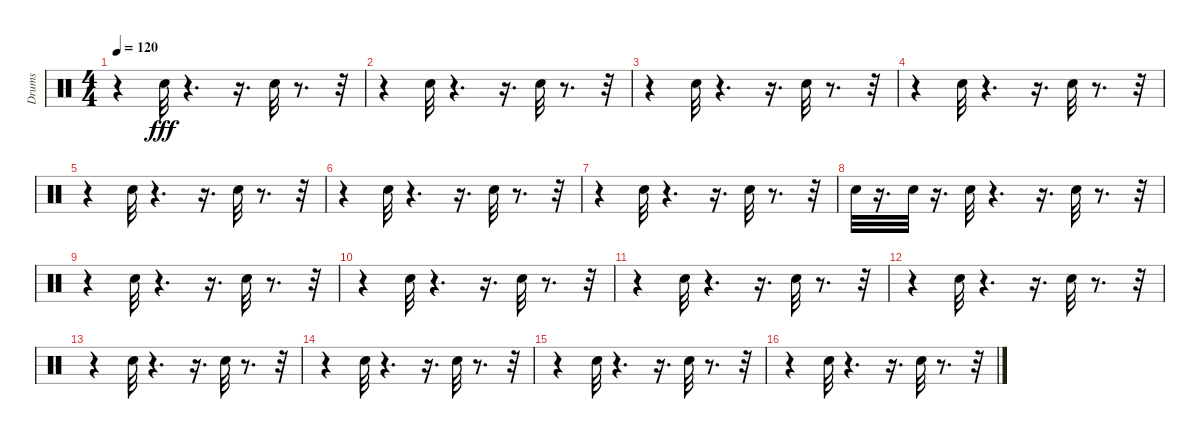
\track ("Drums" "Drums") {instrument percussion}
\staff {score}
\articulation defaults
\ts (4 4)
\tempo 120
\clef neutral
\ks c
r.4{dy fff} "Snare (hit) 2".32 r.4{d} r.16{d} "Snare (hit) 2".32 r.8{d} r.32 |
r.4 "Snare (hit) 2".32 r.4{d} r.16{d} "Snare (hit) 2".32 r.8{d} r.32 |
r.4 "Snare (hit) 2".32 r.4{d} r.16{d} "Snare (hit) 2".32 r.8{d} r.32 |
r.4 "Snare (hit) 2".32 r.4{d} r.16{d} "Snare (hit) 2".32 r.8{d} r.32 |
r.4 "Snare (hit) 2".32 r.4{d} r.16{d} "Snare (hit) 2".32 r.8{d} r.32 |
r.4 "Snare (hit) 2".32 r.4{d} r.16{d} "Snare (hit) 2".32 r.8{d} r.32 |
r.4 "Snare (hit) 2".32 r.4{d} r.16{d} "Snare (hit) 2".32 r.8{d} r.32 |
"Snare (hit) 2".32 r.16{d} "Snare (hit) 2".32 r.16{d} "Snare (hit) 2".32 r.4{d} r.16{d} "Snare (hit) 2".32 r.8{d} r.32 |
r.4 "Snare (hit) 2".32 r.4{d} r.16{d} "Snare (hit) 2".32 r.8{d} r.32 |
r.4 "Snare (hit) 2".32 r.4{d} r.16{d} "Snare (hit) 2".32 r.8{d} r.32 |
r.4 "Snare (hit) 2".32 r.4{d} r.16{d} "Snare (hit) 2".32 r.8{d} r.32 |
r.4 "Snare (hit) 2".32 r.4{d} r.16{d} "Snare (hit) 2".32 r.8{d} r.32 |
r.4 "Snare (hit) 2".32 r.4{d} r.16{d} "Snare (hit) 2".32 r.8{d} r.32 |
r.4 "Snare (hit) 2".32 r.4{d} r.16{d} "Snare (hit) 2".32 r.8{d} r.32 |
r.4 "Snare (hit) 2".32 r.4{d} r.16{d} "Snare (hit) 2".32 r.8{d} r.32 |
r.4 "Snare (hit) 2".32 r.4{d} r.16{d} "Snare (hit) 2".32 r.8{d} r.32
